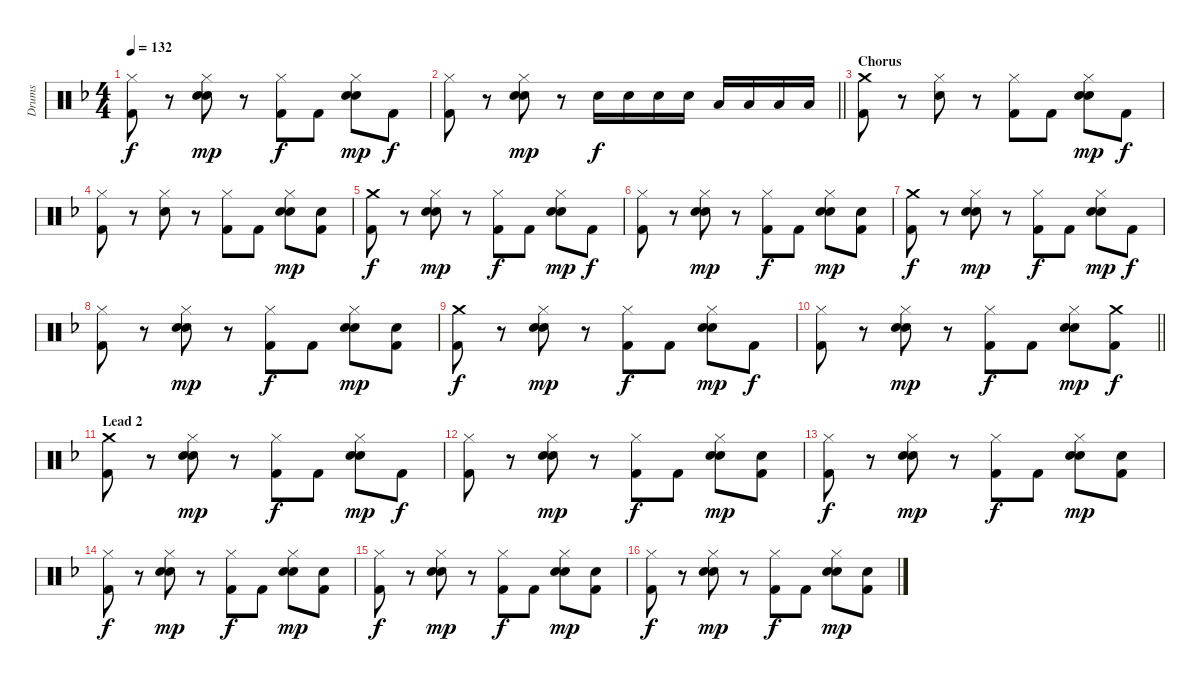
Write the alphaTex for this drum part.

\track ("Drums" "Drums") {instrument percussion}
\staff {score}
\articulation defaults
\ts (4 4)
\tempo 132
\clef neutral
\ks f
("Hi-Hat (closed)" "Kick (hit) 2").8{dy f} r.8 ("Hi-Hat (closed)" "Hand Clap (hit)" "Snare (hit) 2").8{dy mp} r.8 ("Hi-Hat (closed)" "Kick (hit) 2").8{dy f} "Kick (hit) 2".8 ("Hi-Hat (closed)" "Hand Clap (hit)" "Snare (hit) 2").8{dy mp} "Kick (hit) 2".8{dy f} |
\barLineRight lightlight
("Hi-Hat (closed)" "Kick (hit) 2").8 r.8 ("Hi-Hat (closed)" "Hand Clap (hit)" "Snare (hit) 2").8{dy mp} r.8 "Snare (hit) 2".16{dy f} "Snare (hit) 2".16 "Snare (hit) 2".16 "Snare (hit) 2".16 "Low Tom (hit)".16 "Low Tom (hit)".16 "Low Tom (hit)".16 "Low Tom (hit)".16 |
\section ("" "Chorus")
("Crash medium (hit)" "Kick (hit) 2").8 r.8 ("Hi-Hat (closed)" "Snare (hit) 2").8 r.8 ("Hi-Hat (closed)" "Kick (hit) 2").8 "Kick (hit) 2".8 ("Hi-Hat (closed)" "Hand Clap (hit)" "Snare (hit) 2").8{dy mp} "Kick (hit) 2".8{dy f} |
("Hi-Hat (closed)" "Kick (hit) 2").8 r.8 ("Hi-Hat (closed)" "Snare (hit) 2").8 r.8 ("Hi-Hat (closed)" "Kick (hit) 2").8 "Kick (hit) 2".8 ("Hi-Hat (closed)" "Hand Clap (hit)" "Snare (hit) 2").8{dy mp} ("Hand Clap (hit)" "Kick (hit) 2").8 |
("Crash medium (hit)" "Kick (hit) 2").8{dy f} r.8 ("Hi-Hat (closed)" "Hand Clap (hit)" "Snare (hit) 2").8{dy mp} r.8 ("Hi-Hat (closed)" "Kick (hit) 2").8{dy f} "Kick (hit) 2".8 ("Hi-Hat (closed)" "Hand Clap (hit)" "Snare (hit) 2").8{dy mp} "Kick (hit) 2".8{dy f} |
("Hi-Hat (closed)" "Kick (hit) 2").8 r.8 ("Hi-Hat (closed)" "Hand Clap (hit)" "Snare (hit) 2").8{dy mp} r.8 ("Hi-Hat (closed)" "Kick (hit) 2").8{dy f} "Kick (hit) 2".8 ("Hi-Hat (closed)" "Hand Clap (hit)" "Snare (hit) 2").8{dy mp} ("Hand Clap (hit)" "Kick (hit) 2").8 |
("Crash medium (hit)" "Kick (hit) 2").8{dy f} r.8 ("Hi-Hat (closed)" "Hand Clap (hit)" "Snare (hit) 2").8{dy mp} r.8 ("Hi-Hat (closed)" "Kick (hit) 2").8{dy f} "Kick (hit) 2".8 ("Hi-Hat (closed)" "Hand Clap (hit)" "Snare (hit) 2").8{dy mp} "Kick (hit) 2".8{dy f} |
("Hi-Hat (closed)" "Kick (hit) 2").8 r.8 ("Hi-Hat (closed)" "Hand Clap (hit)" "Snare (hit) 2").8{dy mp} r.8 ("Hi-Hat (closed)" "Kick (hit) 2").8{dy f} "Kick (hit) 2".8 ("Hi-Hat (closed)" "Hand Clap (hit)" "Snare (hit) 2").8{dy mp} ("Hand Clap (hit)" "Kick (hit) 2").8 |
("Crash medium (hit)" "Kick (hit) 2").8{dy f} r.8 ("Hi-Hat (closed)" "Hand Clap (hit)" "Snare (hit) 2").8{dy mp} r.8 ("Hi-Hat (closed)" "Kick (hit) 2").8{dy f} "Kick (hit) 2".8 ("Hi-Hat (closed)" "Hand Clap (hit)" "Snare (hit) 2").8{dy mp} "Kick (hit) 2".8{dy f} |
\barLineRight lightlight
("Hi-Hat (closed)" "Kick (hit) 2").8 r.8 ("Hi-Hat (closed)" "Hand Clap (hit)" "Snare (hit) 2").8{dy mp} r.8 ("Hi-Hat (closed)" "Kick (hit) 2").8{dy f} "Kick (hit) 2".8 ("Hi-Hat (closed)" "Hand Clap (hit)" "Snare (hit) 2").8{dy mp} ("Crash medium (hit)" "Kick (hit) 2").8{dy f} |
\section ("" "Lead 2")
("Crash medium (hit)" "Kick (hit) 2").8 r.8 ("Hi-Hat (closed)" "Hand Clap (hit)" "Snare (hit) 2").8{dy mp} r.8 ("Hi-Hat (closed)" "Kick (hit) 2").8{dy f} "Kick (hit) 2".8 ("Hi-Hat (closed)" "Hand Clap (hit)" "Snare (hit) 2").8{dy mp} "Kick (hit) 2".8{dy f} |
("Hi-Hat (closed)" "Kick (hit) 2").8 r.8 ("Hi-Hat (closed)" "Hand Clap (hit)" "Snare (hit) 2").8{dy mp} r.8 ("Hi-Hat (closed)" "Kick (hit) 2").8{dy f} "Kick (hit) 2".8 ("Hi-Hat (closed)" "Hand Clap (hit)" "Snare (hit) 2").8{dy mp} ("Hand Clap (hit)" "Kick (hit) 2").8 |
("Hi-Hat (closed)" "Kick (hit) 2").8{dy f} r.8 ("Hi-Hat (closed)" "Hand Clap (hit)" "Snare (hit) 2").8{dy mp} r.8 ("Hi-Hat (closed)" "Kick (hit) 2").8{dy f} "Kick (hit) 2".8 ("Hi-Hat (closed)" "Hand Clap (hit)" "Snare (hit) 2").8{dy mp} ("Hand Clap (hit)" "Kick (hit) 2").8 |
("Hi-Hat (closed)" "Kick (hit) 2").8{dy f} r.8 ("Hi-Hat (closed)" "Hand Clap (hit)" "Snare (hit) 2").8{dy mp} r.8 ("Hi-Hat (closed)" "Kick (hit) 2").8{dy f} "Kick (hit) 2".8 ("Hi-Hat (closed)" "Hand Clap (hit)" "Snare (hit) 2").8{dy mp} ("Hand Clap (hit)" "Kick (hit) 2").8 |
("Hi-Hat (closed)" "Kick (hit) 2").8{dy f} r.8 ("Hi-Hat (closed)" "Hand Clap (hit)" "Snare (hit) 2").8{dy mp} r.8 ("Hi-Hat (closed)" "Kick (hit) 2").8{dy f} "Kick (hit) 2".8 ("Hi-Hat (closed)" "Hand Clap (hit)" "Snare (hit) 2").8{dy mp} ("Hand Clap (hit)" "Kick (hit) 2").8 |
("Hi-Hat (closed)" "Kick (hit) 2").8{dy f} r.8 ("Hi-Hat (closed)" "Hand Clap (hit)" "Snare (hit) 2").8{dy mp} r.8 ("Hi-Hat (closed)" "Kick (hit) 2").8{dy f} "Kick (hit) 2".8 ("Hi-Hat (closed)" "Hand Clap (hit)" "Snare (hit) 2").8{dy mp} ("Hand Clap (hit)" "Kick (hit) 2").8
